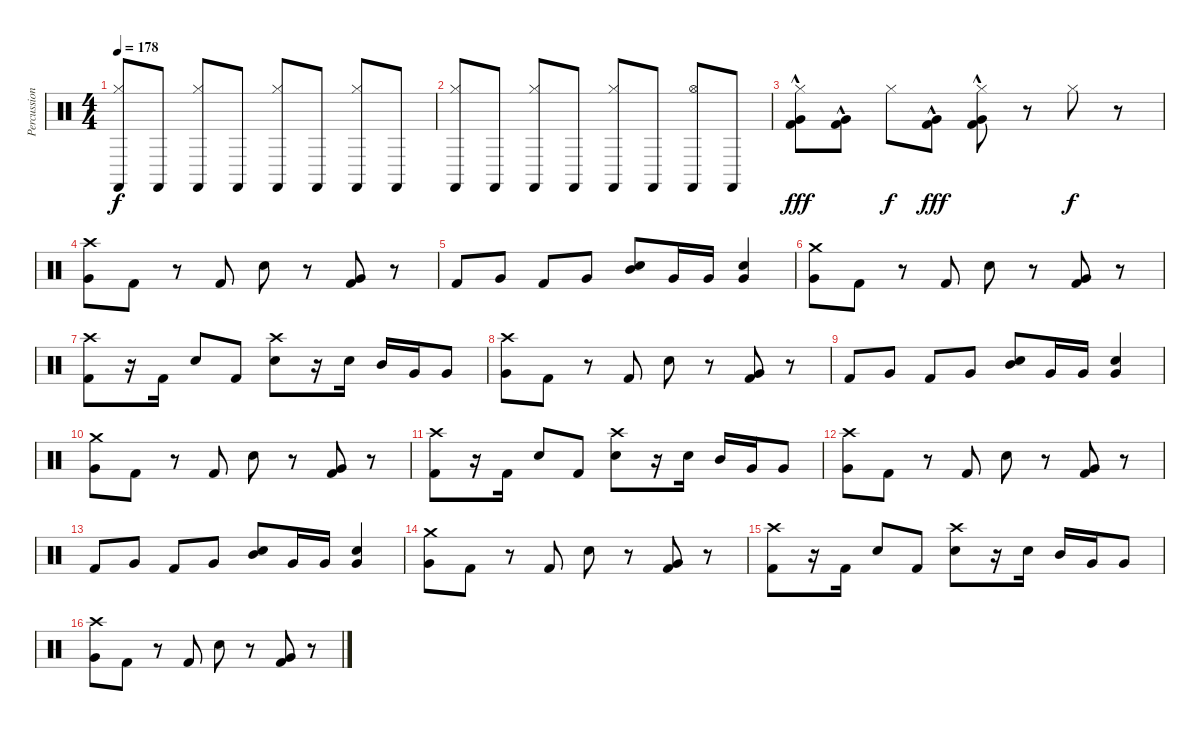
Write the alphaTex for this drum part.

\track ("Percussion" "Percussion") {instrument percussion}
\staff {score}
\articulation defaults
\ts (4 4)
\tempo 178
\clef neutral
\ks c
("Hi-Hat (closed)" "Castanets (hit)").8{dy f} "Castanets (hit)".8 ("Hi-Hat (closed)" "Castanets (hit)").8 "Castanets (hit)".8 ("Hi-Hat (closed)" "Castanets (hit)").8 "Castanets (hit)".8 ("Hi-Hat (closed)" "Castanets (hit)").8 "Castanets (hit)".8 |
("Hi-Hat (closed)" "Castanets (hit)").8 "Castanets (hit)".8 ("Hi-Hat (closed)" "Castanets (hit)").8 "Castanets (hit)".8 ("Hi-Hat (closed)" "Castanets (hit)").8 "Castanets (hit)".8 ("Hi-Hat (open)" "Castanets (hit)").8 "Castanets (hit)".8 |
("Hi-Hat (closed)" "Very Low Tom (hit)"{hac} "Kick (hit) 2").8{dy fff} ("Very Low Tom (hit)"{hac} "Kick (hit) 2").8 "Hi-Hat (closed)".8{dy f} ("Very Low Tom (hit)"{hac} "Kick (hit) 2").8{dy fff} ("Hi-Hat (closed)" "Very Low Tom (hit)"{hac} "Kick (hit) 2").8 r.8 "Hi-Hat (closed)".8{dy f} r.8 |
("Crash high (hit)" "Very Low Tom (hit)").8 "Kick (hit) 2".8 r.8 "Kick (hit) 2".8 "Electric Snare (hit)".8 r.8 ("Very Low Tom (hit)" "Kick (hit) 2").8 r.8 |
"Kick (hit) 2".8 "Very Low Tom (hit)".8 "Kick (hit) 2".8 "Very Low Tom (hit)".8 ("Electric Snare (hit)" "Mid Tom (hit)").8 "Very Low Tom (hit)".16 "Very Low Tom (hit)".16 ("Electric Snare (hit)" "Very Low Tom (hit)").4 |
("Crash medium (hit)" "Very Low Tom (hit)").8 "Kick (hit) 2".8 r.8 "Kick (hit) 2".8 "Electric Snare (hit)".8 r.8 ("Very Low Tom (hit)" "Kick (hit) 2").8 r.8 |
("Crash high (hit)" "Kick (hit) 2").8 r.16 "Kick (hit) 2".16 "Electric Snare (hit)".8 "Kick (hit) 2".8 ("Crash high (hit)" "Electric Snare (hit)").8 r.16 "Electric Snare (hit)".16 "Mid Tom (hit)".16 "Very Low Tom (hit)".16 "Very Low Tom (hit)".8 |
("Crash high (hit)" "Very Low Tom (hit)").8 "Kick (hit) 2".8 r.8 "Kick (hit) 2".8 "Electric Snare (hit)".8 r.8 ("Very Low Tom (hit)" "Kick (hit) 2").8 r.8 |
"Kick (hit) 2".8 "Very Low Tom (hit)".8 "Kick (hit) 2".8 "Very Low Tom (hit)".8 ("Electric Snare (hit)" "Mid Tom (hit)").8 "Very Low Tom (hit)".16 "Very Low Tom (hit)".16 ("Electric Snare (hit)" "Very Low Tom (hit)").4 |
("Crash medium (hit)" "Very Low Tom (hit)").8 "Kick (hit) 2".8 r.8 "Kick (hit) 2".8 "Electric Snare (hit)".8 r.8 ("Very Low Tom (hit)" "Kick (hit) 2").8 r.8 |
("Crash high (hit)" "Kick (hit) 2").8 r.16 "Kick (hit) 2".16 "Electric Snare (hit)".8 "Kick (hit) 2".8 ("Crash high (hit)" "Electric Snare (hit)").8 r.16 "Electric Snare (hit)".16 "Mid Tom (hit)".16 "Very Low Tom (hit)".16 "Very Low Tom (hit)".8 |
("Crash high (hit)" "Very Low Tom (hit)").8 "Kick (hit) 2".8 r.8 "Kick (hit) 2".8 "Electric Snare (hit)".8 r.8 ("Very Low Tom (hit)" "Kick (hit) 2").8 r.8 |
"Kick (hit) 2".8 "Very Low Tom (hit)".8 "Kick (hit) 2".8 "Very Low Tom (hit)".8 ("Electric Snare (hit)" "Mid Tom (hit)").8 "Very Low Tom (hit)".16 "Very Low Tom (hit)".16 ("Electric Snare (hit)" "Very Low Tom (hit)").4 |
("Crash medium (hit)" "Very Low Tom (hit)").8 "Kick (hit) 2".8 r.8 "Kick (hit) 2".8 "Electric Snare (hit)".8 r.8 ("Very Low Tom (hit)" "Kick (hit) 2").8 r.8 |
("Crash high (hit)" "Kick (hit) 2").8 r.16 "Kick (hit) 2".16 "Electric Snare (hit)".8 "Kick (hit) 2".8 ("Crash high (hit)" "Electric Snare (hit)").8 r.16 "Electric Snare (hit)".16 "Mid Tom (hit)".16 "Very Low Tom (hit)".16 "Very Low Tom (hit)".8 |
("Crash high (hit)" "Very Low Tom (hit)").8 "Kick (hit) 2".8 r.8 "Kick (hit) 2".8 "Electric Snare (hit)".8 r.8 ("Very Low Tom (hit)" "Kick (hit) 2").8 r.8
